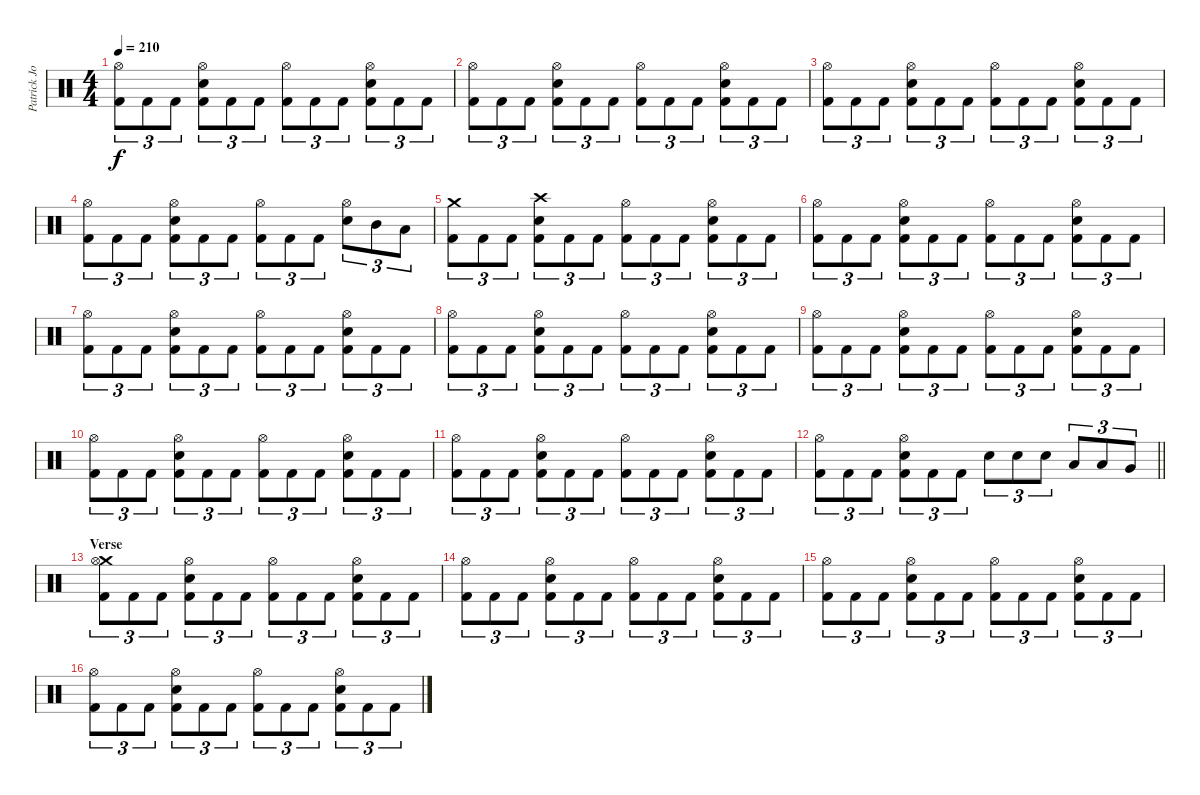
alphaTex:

\track ("Patrick Johansson" "Patrick Jo") {instrument percussion}
\staff {score}
\articulation defaults
\ts (4 4)
\tempo 210
\clef neutral
\ks c
("Hi-Hat (open)" "Kick (hit) 2").8{tu (3 2) dy f} "Kick (hit) 2".8{tu (3 2)} "Kick (hit) 2".8{tu (3 2)} ("Hi-Hat (open)" "Snare (hit) 2" "Kick (hit) 2").8{tu (3 2)} "Kick (hit) 2".8{tu (3 2)} "Kick (hit) 2".8{tu (3 2)} ("Hi-Hat (open)" "Kick (hit) 2").8{tu (3 2)} "Kick (hit) 2".8{tu (3 2)} "Kick (hit) 2".8{tu (3 2)} ("Hi-Hat (open)" "Snare (hit) 2" "Kick (hit) 2").8{tu (3 2)} "Kick (hit) 2".8{tu (3 2)} "Kick (hit) 2".8{tu (3 2)} |
("Hi-Hat (open)" "Kick (hit) 2").8{tu (3 2)} "Kick (hit) 2".8{tu (3 2)} "Kick (hit) 2".8{tu (3 2)} ("Hi-Hat (open)" "Snare (hit) 2" "Kick (hit) 2").8{tu (3 2)} "Kick (hit) 2".8{tu (3 2)} "Kick (hit) 2".8{tu (3 2)} ("Hi-Hat (open)" "Kick (hit) 2").8{tu (3 2)} "Kick (hit) 2".8{tu (3 2)} "Kick (hit) 2".8{tu (3 2)} ("Hi-Hat (open)" "Snare (hit) 2" "Kick (hit) 2").8{tu (3 2)} "Kick (hit) 2".8{tu (3 2)} "Kick (hit) 2".8{tu (3 2)} |
("Hi-Hat (open)" "Kick (hit) 2").8{tu (3 2)} "Kick (hit) 2".8{tu (3 2)} "Kick (hit) 2".8{tu (3 2)} ("Hi-Hat (open)" "Snare (hit) 2" "Kick (hit) 2").8{tu (3 2)} "Kick (hit) 2".8{tu (3 2)} "Kick (hit) 2".8{tu (3 2)} ("Hi-Hat (open)" "Kick (hit) 2").8{tu (3 2)} "Kick (hit) 2".8{tu (3 2)} "Kick (hit) 2".8{tu (3 2)} ("Hi-Hat (open)" "Snare (hit) 2" "Kick (hit) 2").8{tu (3 2)} "Kick (hit) 2".8{tu (3 2)} "Kick (hit) 2".8{tu (3 2)} |
("Hi-Hat (open)" "Kick (hit) 2").8{tu (3 2)} "Kick (hit) 2".8{tu (3 2)} "Kick (hit) 2".8{tu (3 2)} ("Hi-Hat (open)" "Snare (hit) 2" "Kick (hit) 2").8{tu (3 2)} "Kick (hit) 2".8{tu (3 2)} "Kick (hit) 2".8{tu (3 2)} ("Hi-Hat (open)" "Kick (hit) 2").8{tu (3 2)} "Kick (hit) 2".8{tu (3 2)} "Kick (hit) 2".8{tu (3 2)} ("Hi-Hat (open)" "Snare (hit) 2").8{tu (3 2)} "Mid Tom (hit)".8{tu (3 2)} "Low Tom (hit)".8{tu (3 2)} |
("Crash medium (hit)" "Kick (hit) 2").8{tu (3 2)} "Kick (hit) 2".8{tu (3 2)} "Kick (hit) 2".8{tu (3 2)} ("Crash high (hit)" "Snare (hit) 2" "Kick (hit) 2").8{tu (3 2)} "Kick (hit) 2".8{tu (3 2)} "Kick (hit) 2".8{tu (3 2)} ("Hi-Hat (open)" "Kick (hit) 2").8{tu (3 2)} "Kick (hit) 2".8{tu (3 2)} "Kick (hit) 2".8{tu (3 2)} ("Hi-Hat (open)" "Snare (hit) 2" "Kick (hit) 2").8{tu (3 2)} "Kick (hit) 2".8{tu (3 2)} "Kick (hit) 2".8{tu (3 2)} |
("Hi-Hat (open)" "Kick (hit) 2").8{tu (3 2)} "Kick (hit) 2".8{tu (3 2)} "Kick (hit) 2".8{tu (3 2)} ("Hi-Hat (open)" "Snare (hit) 2" "Kick (hit) 2").8{tu (3 2)} "Kick (hit) 2".8{tu (3 2)} "Kick (hit) 2".8{tu (3 2)} ("Hi-Hat (open)" "Kick (hit) 2").8{tu (3 2)} "Kick (hit) 2".8{tu (3 2)} "Kick (hit) 2".8{tu (3 2)} ("Hi-Hat (open)" "Snare (hit) 2" "Kick (hit) 2").8{tu (3 2)} "Kick (hit) 2".8{tu (3 2)} "Kick (hit) 2".8{tu (3 2)} |
("Hi-Hat (open)" "Kick (hit) 2").8{tu (3 2)} "Kick (hit) 2".8{tu (3 2)} "Kick (hit) 2".8{tu (3 2)} ("Hi-Hat (open)" "Snare (hit) 2" "Kick (hit) 2").8{tu (3 2)} "Kick (hit) 2".8{tu (3 2)} "Kick (hit) 2".8{tu (3 2)} ("Hi-Hat (open)" "Kick (hit) 2").8{tu (3 2)} "Kick (hit) 2".8{tu (3 2)} "Kick (hit) 2".8{tu (3 2)} ("Hi-Hat (open)" "Snare (hit) 2" "Kick (hit) 2").8{tu (3 2)} "Kick (hit) 2".8{tu (3 2)} "Kick (hit) 2".8{tu (3 2)} |
("Hi-Hat (open)" "Kick (hit) 2").8{tu (3 2)} "Kick (hit) 2".8{tu (3 2)} "Kick (hit) 2".8{tu (3 2)} ("Hi-Hat (open)" "Snare (hit) 2" "Kick (hit) 2").8{tu (3 2)} "Kick (hit) 2".8{tu (3 2)} "Kick (hit) 2".8{tu (3 2)} ("Hi-Hat (open)" "Kick (hit) 2").8{tu (3 2)} "Kick (hit) 2".8{tu (3 2)} "Kick (hit) 2".8{tu (3 2)} ("Hi-Hat (open)" "Snare (hit) 2" "Kick (hit) 2").8{tu (3 2)} "Kick (hit) 2".8{tu (3 2)} "Kick (hit) 2".8{tu (3 2)} |
("Hi-Hat (open)" "Kick (hit) 2").8{tu (3 2)} "Kick (hit) 2".8{tu (3 2)} "Kick (hit) 2".8{tu (3 2)} ("Hi-Hat (open)" "Snare (hit) 2" "Kick (hit) 2").8{tu (3 2)} "Kick (hit) 2".8{tu (3 2)} "Kick (hit) 2".8{tu (3 2)} ("Hi-Hat (open)" "Kick (hit) 2").8{tu (3 2)} "Kick (hit) 2".8{tu (3 2)} "Kick (hit) 2".8{tu (3 2)} ("Hi-Hat (open)" "Snare (hit) 2" "Kick (hit) 2").8{tu (3 2)} "Kick (hit) 2".8{tu (3 2)} "Kick (hit) 2".8{tu (3 2)} |
("Hi-Hat (open)" "Kick (hit) 2").8{tu (3 2)} "Kick (hit) 2".8{tu (3 2)} "Kick (hit) 2".8{tu (3 2)} ("Hi-Hat (open)" "Snare (hit) 2" "Kick (hit) 2").8{tu (3 2)} "Kick (hit) 2".8{tu (3 2)} "Kick (hit) 2".8{tu (3 2)} ("Hi-Hat (open)" "Kick (hit) 2").8{tu (3 2)} "Kick (hit) 2".8{tu (3 2)} "Kick (hit) 2".8{tu (3 2)} ("Hi-Hat (open)" "Snare (hit) 2" "Kick (hit) 2").8{tu (3 2)} "Kick (hit) 2".8{tu (3 2)} "Kick (hit) 2".8{tu (3 2)} |
("Hi-Hat (open)" "Kick (hit) 2").8{tu (3 2)} "Kick (hit) 2".8{tu (3 2)} "Kick (hit) 2".8{tu (3 2)} ("Hi-Hat (open)" "Snare (hit) 2" "Kick (hit) 2").8{tu (3 2)} "Kick (hit) 2".8{tu (3 2)} "Kick (hit) 2".8{tu (3 2)} ("Hi-Hat (open)" "Kick (hit) 2").8{tu (3 2)} "Kick (hit) 2".8{tu (3 2)} "Kick (hit) 2".8{tu (3 2)} ("Hi-Hat (open)" "Snare (hit) 2" "Kick (hit) 2").8{tu (3 2)} "Kick (hit) 2".8{tu (3 2)} "Kick (hit) 2".8{tu (3 2)} |
\barLineRight lightlight
("Hi-Hat (open)" "Kick (hit) 2").8{tu (3 2)} "Kick (hit) 2".8{tu (3 2)} "Kick (hit) 2".8{tu (3 2)} ("Hi-Hat (open)" "Snare (hit) 2" "Kick (hit) 2").8{tu (3 2)} "Kick (hit) 2".8{tu (3 2)} "Kick (hit) 2".8{tu (3 2)} "Snare (hit) 2".8{tu (3 2)} "Snare (hit) 2".8{tu (3 2)} "Snare (hit) 2".8{tu (3 2)} "Low Tom (hit)".8{tu (3 2)} "Low Tom (hit)".8{tu (3 2)} "Very Low Tom (hit)".8{tu (3 2)} |
\section ("" "Verse")
("Crash medium (hit)" "Hi-Hat (open)" "Kick (hit) 2").8{tu (3 2)} "Kick (hit) 2".8{tu (3 2)} "Kick (hit) 2".8{tu (3 2)} ("Hi-Hat (open)" "Snare (hit) 2" "Kick (hit) 2").8{tu (3 2)} "Kick (hit) 2".8{tu (3 2)} "Kick (hit) 2".8{tu (3 2)} ("Hi-Hat (open)" "Kick (hit) 2").8{tu (3 2)} "Kick (hit) 2".8{tu (3 2)} "Kick (hit) 2".8{tu (3 2)} ("Hi-Hat (open)" "Snare (hit) 2" "Kick (hit) 2").8{tu (3 2)} "Kick (hit) 2".8{tu (3 2)} "Kick (hit) 2".8{tu (3 2)} |
("Hi-Hat (open)" "Kick (hit) 2").8{tu (3 2)} "Kick (hit) 2".8{tu (3 2)} "Kick (hit) 2".8{tu (3 2)} ("Hi-Hat (open)" "Snare (hit) 2" "Kick (hit) 2").8{tu (3 2)} "Kick (hit) 2".8{tu (3 2)} "Kick (hit) 2".8{tu (3 2)} ("Hi-Hat (open)" "Kick (hit) 2").8{tu (3 2)} "Kick (hit) 2".8{tu (3 2)} "Kick (hit) 2".8{tu (3 2)} ("Hi-Hat (open)" "Snare (hit) 2" "Kick (hit) 2").8{tu (3 2)} "Kick (hit) 2".8{tu (3 2)} "Kick (hit) 2".8{tu (3 2)} |
("Hi-Hat (open)" "Kick (hit) 2").8{tu (3 2)} "Kick (hit) 2".8{tu (3 2)} "Kick (hit) 2".8{tu (3 2)} ("Hi-Hat (open)" "Snare (hit) 2" "Kick (hit) 2").8{tu (3 2)} "Kick (hit) 2".8{tu (3 2)} "Kick (hit) 2".8{tu (3 2)} ("Hi-Hat (open)" "Kick (hit) 2").8{tu (3 2)} "Kick (hit) 2".8{tu (3 2)} "Kick (hit) 2".8{tu (3 2)} ("Hi-Hat (open)" "Snare (hit) 2" "Kick (hit) 2").8{tu (3 2)} "Kick (hit) 2".8{tu (3 2)} "Kick (hit) 2".8{tu (3 2)} |
("Hi-Hat (open)" "Kick (hit) 2").8{tu (3 2)} "Kick (hit) 2".8{tu (3 2)} "Kick (hit) 2".8{tu (3 2)} ("Hi-Hat (open)" "Snare (hit) 2" "Kick (hit) 2").8{tu (3 2)} "Kick (hit) 2".8{tu (3 2)} "Kick (hit) 2".8{tu (3 2)} ("Hi-Hat (open)" "Kick (hit) 2").8{tu (3 2)} "Kick (hit) 2".8{tu (3 2)} "Kick (hit) 2".8{tu (3 2)} ("Hi-Hat (open)" "Snare (hit) 2" "Kick (hit) 2").8{tu (3 2)} "Kick (hit) 2".8{tu (3 2)} "Kick (hit) 2".8{tu (3 2)}
